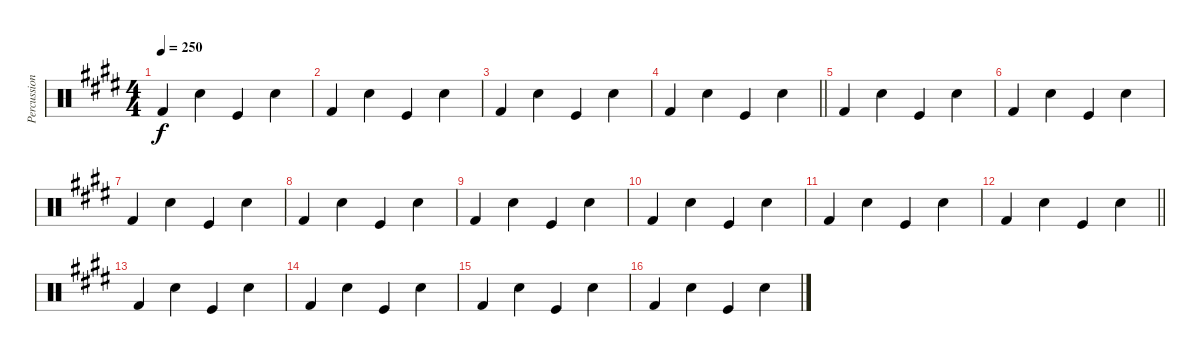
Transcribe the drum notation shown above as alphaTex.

\track ("Percussion" "Percussion") {instrument percussion}
\staff {score}
\articulation defaults
\ts (4 4)
\tempo 250
\clef neutral
\ks e "Kick (hit) 2".4{dy f} "Snare (hit) 2".4 "Kick (hit)".4 "Snare (hit) 2".4
|
"Kick (hit) 2".4 "Snare (hit) 2".4 "Kick (hit)".4 "Snare (hit) 2".4 |
"Kick (hit) 2".4 "Snare (hit) 2".4 "Kick (hit)".4 "Snare (hit) 2".4 |
\barLineRight lightlight "Kick (hit) 2".4 "Snare (hit) 2".4 "Kick (hit)".4 "Snare (hit) 2".4
|
"Kick (hit) 2".4 "Snare (hit) 2".4 "Kick (hit)".4 "Snare (hit) 2".4 |
"Kick (hit) 2".4 "Snare (hit) 2".4 "Kick (hit)".4 "Snare (hit) 2".4 |
"Kick (hit) 2".4 "Snare (hit) 2".4 "Kick (hit)".4 "Snare (hit) 2".4 |
"Kick (hit) 2".4 "Snare (hit) 2".4 "Kick (hit)".4 "Snare (hit) 2".4 |
"Kick (hit) 2".4 "Snare (hit) 2".4 "Kick (hit)".4 "Snare (hit) 2".4 |
"Kick (hit) 2".4 "Snare (hit) 2".4 "Kick (hit)".4 "Snare (hit) 2".4 |
"Kick (hit) 2".4 "Snare (hit) 2".4 "Kick (hit)".4 "Snare (hit) 2".4 |
\barLineRight lightlight "Kick (hit) 2".4 "Snare (hit) 2".4 "Kick (hit)".4 "Snare (hit) 2".4
|
"Kick (hit) 2".4 "Snare (hit) 2".4 "Kick (hit)".4 "Snare (hit) 2".4 |
"Kick (hit) 2".4 "Snare (hit) 2".4 "Kick (hit)".4 "Snare (hit) 2".4 |
"Kick (hit) 2".4 "Snare (hit) 2".4 "Kick (hit)".4 "Snare (hit) 2".4 |
"Kick (hit) 2".4 "Snare (hit) 2".4 "Kick (hit)".4 "Snare (hit) 2".4
